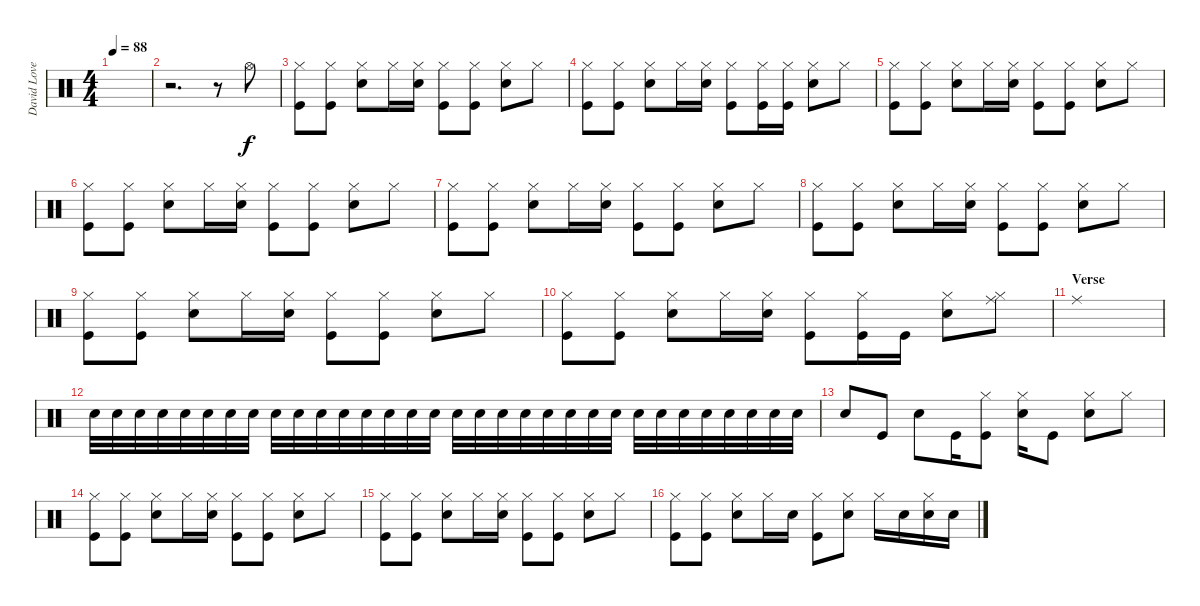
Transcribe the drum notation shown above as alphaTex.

\track ("David Lovering" "David Love") {instrument percussion}
\staff {score}
\articulation defaults
\ts (4 4)
\tempo 88
\clef neutral
\ks c
|
r.2{d} r.8 "Hi-Hat (open)".8 |
("Hi-Hat (closed)" "Kick (hit)").8 ("Hi-Hat (closed)" "Kick (hit)").8 ("Hi-Hat (closed)" "Snare (hit) 2").8 "Hi-Hat (closed)".16 ("Hi-Hat (closed)" "Snare (hit) 2").16 ("Hi-Hat (closed)" "Kick (hit)").8 ("Hi-Hat (closed)" "Kick (hit)").8 ("Hi-Hat (closed)" "Snare (hit) 2").8 "Hi-Hat (closed)".8 |
("Hi-Hat (closed)" "Kick (hit)").8 ("Hi-Hat (closed)" "Kick (hit)").8 ("Hi-Hat (closed)" "Snare (hit) 2").8 "Hi-Hat (closed)".16 ("Hi-Hat (closed)" "Snare (hit) 2").16 ("Hi-Hat (closed)" "Kick (hit)").8 ("Hi-Hat (closed)" "Kick (hit)").16 ("Hi-Hat (closed)" "Kick (hit)").16 ("Hi-Hat (closed)" "Snare (hit) 2").8 "Hi-Hat (closed)".8 |
("Hi-Hat (closed)" "Kick (hit)").8 ("Hi-Hat (closed)" "Kick (hit)").8 ("Hi-Hat (closed)" "Snare (hit) 2").8 "Hi-Hat (closed)".16 ("Hi-Hat (closed)" "Snare (hit) 2").16 ("Hi-Hat (closed)" "Kick (hit)").8 ("Hi-Hat (closed)" "Kick (hit)").8 ("Hi-Hat (closed)" "Snare (hit) 2").8 "Hi-Hat (closed)".8 |
("Hi-Hat (closed)" "Kick (hit)").8 ("Hi-Hat (closed)" "Kick (hit)").8 ("Hi-Hat (closed)" "Snare (hit) 2").8 "Hi-Hat (closed)".16 ("Hi-Hat (closed)" "Snare (hit) 2").16 ("Hi-Hat (closed)" "Kick (hit)").8 ("Hi-Hat (closed)" "Kick (hit)").8 ("Hi-Hat (closed)" "Snare (hit) 2").8 "Hi-Hat (closed)".8 |
("Hi-Hat (closed)" "Kick (hit)").8 ("Hi-Hat (closed)" "Kick (hit)").8 ("Hi-Hat (closed)" "Snare (hit) 2").8 "Hi-Hat (closed)".16 ("Hi-Hat (closed)" "Snare (hit) 2").16 ("Hi-Hat (closed)" "Kick (hit)").8 ("Hi-Hat (closed)" "Kick (hit)").8 ("Hi-Hat (closed)" "Snare (hit) 2").8 "Hi-Hat (closed)".8 |
("Hi-Hat (closed)" "Kick (hit)").8 ("Hi-Hat (closed)" "Kick (hit)").8 ("Hi-Hat (closed)" "Snare (hit) 2").8 "Hi-Hat (closed)".16 ("Hi-Hat (closed)" "Snare (hit) 2").16 ("Hi-Hat (closed)" "Kick (hit)").8 ("Hi-Hat (closed)" "Kick (hit)").8 ("Hi-Hat (closed)" "Snare (hit) 2").8 "Hi-Hat (closed)".8 |
("Hi-Hat (closed)" "Kick (hit)").8 ("Hi-Hat (closed)" "Kick (hit)").8 ("Hi-Hat (closed)" "Snare (hit) 2").8 "Hi-Hat (closed)".16 ("Hi-Hat (closed)" "Snare (hit) 2").16 ("Hi-Hat (closed)" "Kick (hit)").8 ("Hi-Hat (closed)" "Kick (hit)").8 ("Hi-Hat (closed)" "Snare (hit) 2").8 "Hi-Hat (closed)".8 |
("Hi-Hat (closed)" "Kick (hit)").8 ("Hi-Hat (closed)" "Kick (hit)").8 ("Hi-Hat (closed)" "Snare (hit) 2").8 "Hi-Hat (closed)".16 ("Hi-Hat (closed)" "Snare (hit) 2").16 ("Hi-Hat (closed)" "Kick (hit)").8 ("Hi-Hat (closed)" "Kick (hit)").16 "Kick (hit)".16 ("Hi-Hat (closed)" "Snare (hit) 2").8 ("Hi-Hat (closed)" "Ride (middle)").8 |
\section ("" "Verse")
"Ride (middle)".1 |
"Snare (hit) 2".32{volume 6} "Snare (hit) 2".32 "Snare (hit) 2".32 "Snare (hit) 2".32 "Snare (hit) 2".32 "Snare (hit) 2".32 "Snare (hit) 2".32 "Snare (hit) 2".32 "Snare (hit) 2".32 "Snare (hit) 2".32 "Snare (hit) 2".32 "Snare (hit) 2".32 "Snare (hit) 2".32 "Snare (hit) 2".32 "Snare (hit) 2".32 "Snare (hit) 2".32 "Snare (hit) 2".32 "Snare (hit) 2".32 "Snare (hit) 2".32 "Snare (hit) 2".32 "Snare (hit) 2".32 "Snare (hit) 2".32 "Snare (hit) 2".32 "Snare (hit) 2".32 "Snare (hit) 2".32 "Snare (hit) 2".32 "Snare (hit) 2".32 "Snare (hit) 2".32 "Snare (hit) 2".32 "Snare (hit) 2".32 "Snare (hit) 2".32 "Snare (hit) 2".32 |
"Snare (hit) 2".8{volume 13} "Kick (hit)".8 "Snare (hit) 2".8 "Kick (hit)".16 ("Hi-Hat (closed)" "Kick (hit)").8 ("Hi-Hat (closed)" "Snare (hit) 2").16 "Kick (hit)".8 ("Hi-Hat (closed)" "Snare (hit) 2").8 "Hi-Hat (closed)".8 |
("Hi-Hat (closed)" "Kick (hit)").8 ("Hi-Hat (closed)" "Kick (hit)").8 ("Hi-Hat (closed)" "Snare (hit) 2").8 "Hi-Hat (closed)".16 ("Hi-Hat (closed)" "Snare (hit) 2").16 ("Hi-Hat (closed)" "Kick (hit)").8 ("Hi-Hat (closed)" "Kick (hit)").8 ("Hi-Hat (closed)" "Snare (hit) 2").8 "Hi-Hat (closed)".8 |
("Hi-Hat (closed)" "Kick (hit)").8 ("Hi-Hat (closed)" "Kick (hit)").8 ("Hi-Hat (closed)" "Snare (hit) 2").8 "Hi-Hat (closed)".16 ("Hi-Hat (closed)" "Snare (hit) 2").16 ("Hi-Hat (closed)" "Kick (hit)").8 ("Hi-Hat (closed)" "Kick (hit)").8 ("Hi-Hat (closed)" "Snare (hit) 2").8 "Hi-Hat (closed)".8 |
("Hi-Hat (closed)" "Kick (hit)").8 ("Hi-Hat (closed)" "Kick (hit)").8 ("Hi-Hat (closed)" "Snare (hit) 2").8 "Hi-Hat (closed)".16 "Snare (hit) 2".16 ("Hi-Hat (closed)" "Kick (hit)").8 ("Hi-Hat (closed)" "Snare (hit) 2").8 "Hi-Hat (closed)".16 "Snare (hit) 2".16 ("Hi-Hat (closed)" "Snare (hit) 2").16 "Snare (hit) 2".16
